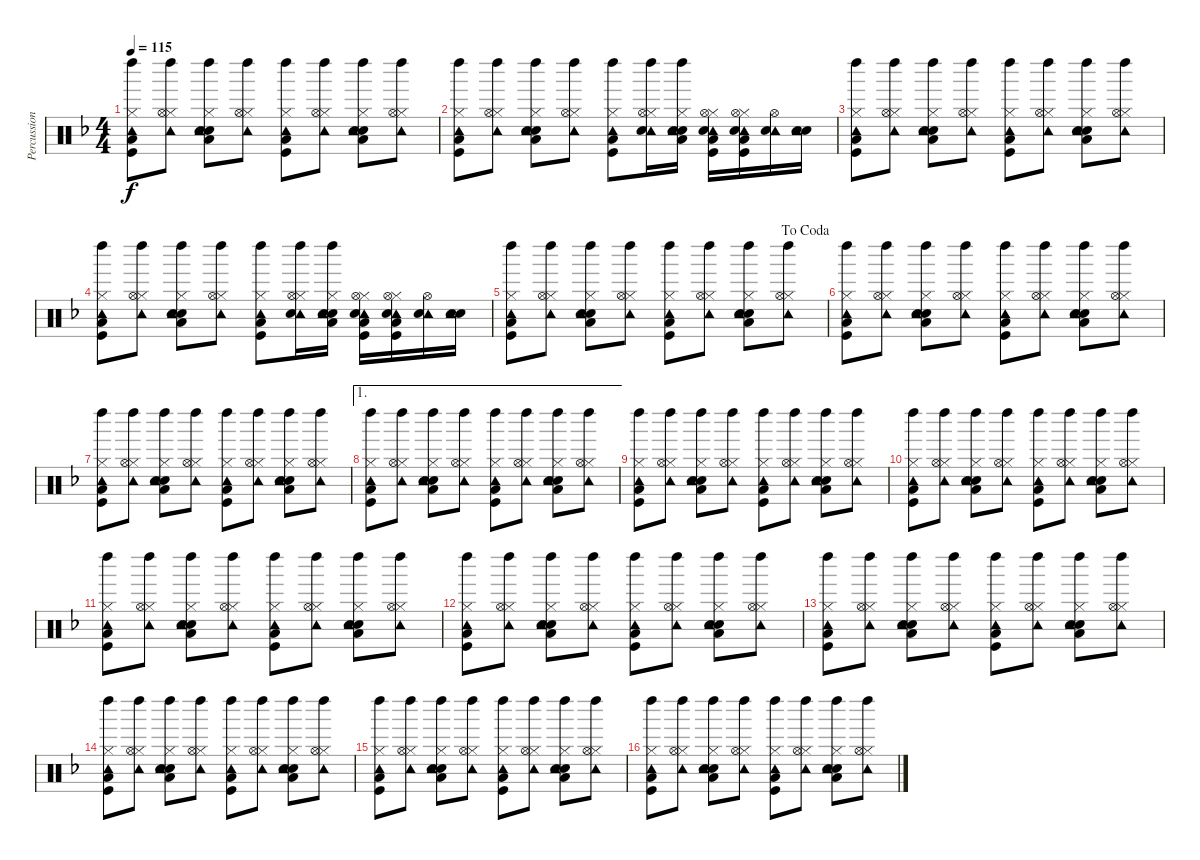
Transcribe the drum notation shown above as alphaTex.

\track ("Percussion" "Percussion") {instrument percussion}
\staff {score}
\articulation defaults
\ts (4 4)
\tempo 115
\clef neutral
\ks dminor
("Left Maraca (hit)" "Hi-Hat (closed)" "Tambourine (hit)" "Kick (hit)" "Low Floor Tom (hit)").8{dy f} ("Left Maraca (hit)" "Hi-Hat (closed)" "Hi-Hat (open)" "Tambourine (hit)").8 ("Left Maraca (hit)" "Hi-Hat (closed)" "Electric Snare (hit)" "Tambourine (hit)" "Snare (hit) 2" "Low Tom (hit)").8 ("Left Maraca (hit)" "Hi-Hat (closed)" "Hi-Hat (open)" "Tambourine (hit)").8 ("Left Maraca (hit)" "Hi-Hat (closed)" "Tambourine (hit)" "Kick (hit)" "Low Floor Tom (hit)").8 ("Left Maraca (hit)" "Hi-Hat (closed)" "Hi-Hat (open)" "Tambourine (hit)").8 ("Left Maraca (hit)" "Hi-Hat (closed)" "Electric Snare (hit)" "Tambourine (hit)" "Snare (hit) 2" "Low Tom (hit)").8 ("Left Maraca (hit)" "Hi-Hat (closed)" "Hi-Hat (open)" "Tambourine (hit)").8 |
("Left Maraca (hit)" "Hi-Hat (closed)" "Tambourine (hit)" "Kick (hit)" "Low Floor Tom (hit)").8 ("Left Maraca (hit)" "Hi-Hat (closed)" "Hi-Hat (open)" "Tambourine (hit)").8 ("Left Maraca (hit)" "Hi-Hat (closed)" "Electric Snare (hit)" "Tambourine (hit)" "Snare (hit) 2" "Low Tom (hit)").8 ("Left Maraca (hit)" "Hi-Hat (closed)" "Hi-Hat (open)" "Tambourine (hit)").8 ("Left Maraca (hit)" "Hi-Hat (closed)" "Tambourine (hit)" "Kick (hit)" "Low Floor Tom (hit)").8 ("Left Maraca (hit)" "Hi-Hat (closed)" "Hi-Hat (open)" "Tambourine (hit)" "Snare (hit) 2").16 ("Left Maraca (hit)" "Hi-Hat (closed)" "Electric Snare (hit)" "Tambourine (hit)" "Snare (hit) 2" "Low Tom (hit)").16 ("Kick (hit)" "Hi-Hat (closed)" "Hi-Hat (open)" "Tambourine (hit)" "Electric Snare (hit)" "Low Floor Tom (hit)").16 ("Kick (hit)" "Hi-Hat (closed)" "Hi-Hat (open)" "Tambourine (hit)" "Electric Snare (hit)" "Low Floor Tom (hit)").16 ("Hi-Hat (open)" "Tambourine (hit)" "Snare (hit) 2").16 ("Electric Snare (hit)" "Tambourine (hit)" "Snare (hit) 2").16 |
("Left Maraca (hit)" "Hi-Hat (closed)" "Tambourine (hit)" "Kick (hit)" "Low Floor Tom (hit)").8 ("Left Maraca (hit)" "Hi-Hat (closed)" "Hi-Hat (open)" "Tambourine (hit)").8 ("Left Maraca (hit)" "Hi-Hat (closed)" "Electric Snare (hit)" "Tambourine (hit)" "Snare (hit) 2" "Low Tom (hit)").8 ("Left Maraca (hit)" "Hi-Hat (closed)" "Hi-Hat (open)" "Tambourine (hit)").8 ("Left Maraca (hit)" "Hi-Hat (closed)" "Tambourine (hit)" "Kick (hit)" "Low Floor Tom (hit)").8 ("Left Maraca (hit)" "Hi-Hat (closed)" "Hi-Hat (open)" "Tambourine (hit)").8 ("Left Maraca (hit)" "Hi-Hat (closed)" "Electric Snare (hit)" "Tambourine (hit)" "Snare (hit) 2" "Low Tom (hit)").8 ("Left Maraca (hit)" "Hi-Hat (closed)" "Hi-Hat (open)" "Tambourine (hit)").8 |
("Left Maraca (hit)" "Hi-Hat (closed)" "Tambourine (hit)" "Kick (hit)" "Low Floor Tom (hit)").8 ("Left Maraca (hit)" "Hi-Hat (closed)" "Hi-Hat (open)" "Tambourine (hit)").8 ("Left Maraca (hit)" "Hi-Hat (closed)" "Electric Snare (hit)" "Tambourine (hit)" "Snare (hit) 2" "Low Tom (hit)").8 ("Left Maraca (hit)" "Hi-Hat (closed)" "Hi-Hat (open)" "Tambourine (hit)").8 ("Left Maraca (hit)" "Hi-Hat (closed)" "Tambourine (hit)" "Kick (hit)" "Low Floor Tom (hit)").8 ("Left Maraca (hit)" "Hi-Hat (closed)" "Hi-Hat (open)" "Tambourine (hit)" "Snare (hit) 2").16 ("Left Maraca (hit)" "Hi-Hat (closed)" "Electric Snare (hit)" "Tambourine (hit)" "Snare (hit) 2" "Low Tom (hit)").16 ("Kick (hit)" "Hi-Hat (closed)" "Hi-Hat (open)" "Tambourine (hit)" "Electric Snare (hit)" "Low Floor Tom (hit)").16 ("Kick (hit)" "Hi-Hat (closed)" "Hi-Hat (open)" "Tambourine (hit)" "Electric Snare (hit)" "Low Floor Tom (hit)").16 ("Hi-Hat (open)" "Tambourine (hit)" "Snare (hit) 2").16 ("Electric Snare (hit)" "Tambourine (hit)" "Snare (hit) 2").16 |
\jump dacoda
("Left Maraca (hit)" "Hi-Hat (closed)" "Tambourine (hit)" "Kick (hit)" "Low Floor Tom (hit)").8 ("Left Maraca (hit)" "Hi-Hat (closed)" "Hi-Hat (open)" "Tambourine (hit)").8 ("Left Maraca (hit)" "Hi-Hat (closed)" "Electric Snare (hit)" "Tambourine (hit)" "Snare (hit) 2" "Low Tom (hit)").8 ("Left Maraca (hit)" "Hi-Hat (closed)" "Hi-Hat (open)" "Tambourine (hit)").8 ("Left Maraca (hit)" "Hi-Hat (closed)" "Tambourine (hit)" "Kick (hit)" "Low Floor Tom (hit)").8 ("Left Maraca (hit)" "Hi-Hat (closed)" "Hi-Hat (open)" "Tambourine (hit)").8 ("Left Maraca (hit)" "Hi-Hat (closed)" "Electric Snare (hit)" "Tambourine (hit)" "Snare (hit) 2" "Low Tom (hit)").8 ("Left Maraca (hit)" "Hi-Hat (closed)" "Hi-Hat (open)" "Tambourine (hit)").8 |
("Left Maraca (hit)" "Hi-Hat (closed)" "Tambourine (hit)" "Kick (hit)" "Low Floor Tom (hit)").8 ("Left Maraca (hit)" "Hi-Hat (closed)" "Hi-Hat (open)" "Tambourine (hit)").8 ("Left Maraca (hit)" "Hi-Hat (closed)" "Electric Snare (hit)" "Tambourine (hit)" "Snare (hit) 2" "Low Tom (hit)").8 ("Left Maraca (hit)" "Hi-Hat (closed)" "Hi-Hat (open)" "Tambourine (hit)").8 ("Left Maraca (hit)" "Hi-Hat (closed)" "Tambourine (hit)" "Kick (hit)" "Low Floor Tom (hit)").8 ("Left Maraca (hit)" "Hi-Hat (closed)" "Hi-Hat (open)" "Tambourine (hit)").8 ("Left Maraca (hit)" "Hi-Hat (closed)" "Electric Snare (hit)" "Tambourine (hit)" "Snare (hit) 2" "Low Tom (hit)").8 ("Left Maraca (hit)" "Hi-Hat (closed)" "Hi-Hat (open)" "Tambourine (hit)").8 |
("Left Maraca (hit)" "Hi-Hat (closed)" "Tambourine (hit)" "Kick (hit)" "Low Floor Tom (hit)").8 ("Left Maraca (hit)" "Hi-Hat (closed)" "Hi-Hat (open)" "Tambourine (hit)").8 ("Left Maraca (hit)" "Hi-Hat (closed)" "Electric Snare (hit)" "Tambourine (hit)" "Snare (hit) 2" "Low Tom (hit)").8 ("Left Maraca (hit)" "Hi-Hat (closed)" "Hi-Hat (open)" "Tambourine (hit)").8 ("Left Maraca (hit)" "Hi-Hat (closed)" "Tambourine (hit)" "Kick (hit)" "Low Floor Tom (hit)").8 ("Left Maraca (hit)" "Hi-Hat (closed)" "Hi-Hat (open)" "Tambourine (hit)").8 ("Left Maraca (hit)" "Hi-Hat (closed)" "Electric Snare (hit)" "Tambourine (hit)" "Snare (hit) 2" "Low Tom (hit)").8 ("Left Maraca (hit)" "Hi-Hat (closed)" "Hi-Hat (open)" "Tambourine (hit)").8 |
\ae 1
("Left Maraca (hit)" "Hi-Hat (closed)" "Tambourine (hit)" "Kick (hit)" "Low Floor Tom (hit)").8 ("Left Maraca (hit)" "Hi-Hat (closed)" "Hi-Hat (open)" "Tambourine (hit)").8 ("Left Maraca (hit)" "Hi-Hat (closed)" "Electric Snare (hit)" "Tambourine (hit)" "Snare (hit) 2" "Low Tom (hit)").8 ("Left Maraca (hit)" "Hi-Hat (closed)" "Hi-Hat (open)" "Tambourine (hit)").8 ("Left Maraca (hit)" "Hi-Hat (closed)" "Tambourine (hit)" "Kick (hit)" "Low Floor Tom (hit)").8 ("Left Maraca (hit)" "Hi-Hat (closed)" "Hi-Hat (open)" "Tambourine (hit)").8 ("Left Maraca (hit)" "Hi-Hat (closed)" "Electric Snare (hit)" "Tambourine (hit)" "Snare (hit) 2" "Low Tom (hit)").8 ("Left Maraca (hit)" "Hi-Hat (closed)" "Hi-Hat (open)" "Tambourine (hit)").8 |
("Left Maraca (hit)" "Hi-Hat (closed)" "Tambourine (hit)" "Kick (hit)" "Low Floor Tom (hit)").8 ("Left Maraca (hit)" "Hi-Hat (closed)" "Hi-Hat (open)" "Tambourine (hit)").8 ("Left Maraca (hit)" "Hi-Hat (closed)" "Electric Snare (hit)" "Tambourine (hit)" "Snare (hit) 2" "Low Tom (hit)").8 ("Left Maraca (hit)" "Hi-Hat (closed)" "Hi-Hat (open)" "Tambourine (hit)").8 ("Left Maraca (hit)" "Hi-Hat (closed)" "Tambourine (hit)" "Kick (hit)" "Low Floor Tom (hit)").8 ("Left Maraca (hit)" "Hi-Hat (closed)" "Hi-Hat (open)" "Tambourine (hit)").8 ("Left Maraca (hit)" "Hi-Hat (closed)" "Electric Snare (hit)" "Tambourine (hit)" "Snare (hit) 2" "Low Tom (hit)").8 ("Left Maraca (hit)" "Hi-Hat (closed)" "Hi-Hat (open)" "Tambourine (hit)").8 |
("Left Maraca (hit)" "Hi-Hat (closed)" "Tambourine (hit)" "Kick (hit)" "Low Floor Tom (hit)").8 ("Left Maraca (hit)" "Hi-Hat (closed)" "Hi-Hat (open)" "Tambourine (hit)").8 ("Left Maraca (hit)" "Hi-Hat (closed)" "Electric Snare (hit)" "Tambourine (hit)" "Snare (hit) 2" "Low Tom (hit)").8 ("Left Maraca (hit)" "Hi-Hat (closed)" "Hi-Hat (open)" "Tambourine (hit)").8 ("Left Maraca (hit)" "Hi-Hat (closed)" "Tambourine (hit)" "Kick (hit)" "Low Floor Tom (hit)").8 ("Left Maraca (hit)" "Hi-Hat (closed)" "Hi-Hat (open)" "Tambourine (hit)").8 ("Left Maraca (hit)" "Hi-Hat (closed)" "Electric Snare (hit)" "Tambourine (hit)" "Snare (hit) 2" "Low Tom (hit)").8 ("Left Maraca (hit)" "Hi-Hat (closed)" "Hi-Hat (open)" "Tambourine (hit)").8 |
("Left Maraca (hit)" "Hi-Hat (closed)" "Tambourine (hit)" "Kick (hit)" "Low Floor Tom (hit)").8 ("Left Maraca (hit)" "Hi-Hat (closed)" "Hi-Hat (open)" "Tambourine (hit)").8 ("Left Maraca (hit)" "Hi-Hat (closed)" "Electric Snare (hit)" "Tambourine (hit)" "Snare (hit) 2" "Low Tom (hit)").8 ("Left Maraca (hit)" "Hi-Hat (closed)" "Hi-Hat (open)" "Tambourine (hit)").8 ("Left Maraca (hit)" "Hi-Hat (closed)" "Tambourine (hit)" "Kick (hit)" "Low Floor Tom (hit)").8 ("Left Maraca (hit)" "Hi-Hat (closed)" "Hi-Hat (open)" "Tambourine (hit)").8 ("Left Maraca (hit)" "Hi-Hat (closed)" "Electric Snare (hit)" "Tambourine (hit)" "Snare (hit) 2" "Low Tom (hit)").8 ("Left Maraca (hit)" "Hi-Hat (closed)" "Hi-Hat (open)" "Tambourine (hit)").8 |
("Left Maraca (hit)" "Hi-Hat (closed)" "Tambourine (hit)" "Kick (hit)" "Low Floor Tom (hit)").8 ("Left Maraca (hit)" "Hi-Hat (closed)" "Hi-Hat (open)" "Tambourine (hit)").8 ("Left Maraca (hit)" "Hi-Hat (closed)" "Electric Snare (hit)" "Tambourine (hit)" "Snare (hit) 2" "Low Tom (hit)").8 ("Left Maraca (hit)" "Hi-Hat (closed)" "Hi-Hat (open)" "Tambourine (hit)").8 ("Left Maraca (hit)" "Hi-Hat (closed)" "Tambourine (hit)" "Kick (hit)" "Low Floor Tom (hit)").8 ("Left Maraca (hit)" "Hi-Hat (closed)" "Hi-Hat (open)" "Tambourine (hit)").8 ("Left Maraca (hit)" "Hi-Hat (closed)" "Electric Snare (hit)" "Tambourine (hit)" "Snare (hit) 2" "Low Tom (hit)").8 ("Left Maraca (hit)" "Hi-Hat (closed)" "Hi-Hat (open)" "Tambourine (hit)").8 |
("Left Maraca (hit)" "Hi-Hat (closed)" "Tambourine (hit)" "Kick (hit)" "Low Floor Tom (hit)").8 ("Left Maraca (hit)" "Hi-Hat (closed)" "Hi-Hat (open)" "Tambourine (hit)").8 ("Left Maraca (hit)" "Hi-Hat (closed)" "Electric Snare (hit)" "Tambourine (hit)" "Snare (hit) 2" "Low Tom (hit)").8 ("Left Maraca (hit)" "Hi-Hat (closed)" "Hi-Hat (open)" "Tambourine (hit)").8 ("Left Maraca (hit)" "Hi-Hat (closed)" "Tambourine (hit)" "Kick (hit)" "Low Floor Tom (hit)").8 ("Left Maraca (hit)" "Hi-Hat (closed)" "Hi-Hat (open)" "Tambourine (hit)").8 ("Left Maraca (hit)" "Hi-Hat (closed)" "Electric Snare (hit)" "Tambourine (hit)" "Snare (hit) 2" "Low Tom (hit)").8 ("Left Maraca (hit)" "Hi-Hat (closed)" "Hi-Hat (open)" "Tambourine (hit)").8 |
("Left Maraca (hit)" "Hi-Hat (closed)" "Tambourine (hit)" "Kick (hit)" "Low Floor Tom (hit)").8 ("Left Maraca (hit)" "Hi-Hat (closed)" "Hi-Hat (open)" "Tambourine (hit)").8 ("Left Maraca (hit)" "Hi-Hat (closed)" "Electric Snare (hit)" "Tambourine (hit)" "Snare (hit) 2" "Low Tom (hit)").8 ("Left Maraca (hit)" "Hi-Hat (closed)" "Hi-Hat (open)" "Tambourine (hit)").8 ("Left Maraca (hit)" "Hi-Hat (closed)" "Tambourine (hit)" "Kick (hit)" "Low Floor Tom (hit)").8 ("Left Maraca (hit)" "Hi-Hat (closed)" "Hi-Hat (open)" "Tambourine (hit)").8 ("Left Maraca (hit)" "Hi-Hat (closed)" "Electric Snare (hit)" "Tambourine (hit)" "Snare (hit) 2" "Low Tom (hit)").8 ("Left Maraca (hit)" "Hi-Hat (closed)" "Hi-Hat (open)" "Tambourine (hit)").8 |
("Left Maraca (hit)" "Hi-Hat (closed)" "Tambourine (hit)" "Kick (hit)" "Low Floor Tom (hit)").8 ("Left Maraca (hit)" "Hi-Hat (closed)" "Hi-Hat (open)" "Tambourine (hit)").8 ("Left Maraca (hit)" "Hi-Hat (closed)" "Electric Snare (hit)" "Tambourine (hit)" "Snare (hit) 2" "Low Tom (hit)").8 ("Left Maraca (hit)" "Hi-Hat (closed)" "Hi-Hat (open)" "Tambourine (hit)").8 ("Left Maraca (hit)" "Hi-Hat (closed)" "Tambourine (hit)" "Kick (hit)" "Low Floor Tom (hit)").8 ("Left Maraca (hit)" "Hi-Hat (closed)" "Hi-Hat (open)" "Tambourine (hit)").8 ("Left Maraca (hit)" "Hi-Hat (closed)" "Electric Snare (hit)" "Tambourine (hit)" "Snare (hit) 2" "Low Tom (hit)").8 ("Left Maraca (hit)" "Hi-Hat (closed)" "Hi-Hat (open)" "Tambourine (hit)").8 |
("Left Maraca (hit)" "Hi-Hat (closed)" "Tambourine (hit)" "Kick (hit)" "Low Floor Tom (hit)").8 ("Left Maraca (hit)" "Hi-Hat (closed)" "Hi-Hat (open)" "Tambourine (hit)").8 ("Left Maraca (hit)" "Hi-Hat (closed)" "Electric Snare (hit)" "Tambourine (hit)" "Snare (hit) 2" "Low Tom (hit)").8 ("Left Maraca (hit)" "Hi-Hat (closed)" "Hi-Hat (open)" "Tambourine (hit)").8 ("Left Maraca (hit)" "Hi-Hat (closed)" "Tambourine (hit)" "Kick (hit)" "Low Floor Tom (hit)").8 ("Left Maraca (hit)" "Hi-Hat (closed)" "Hi-Hat (open)" "Tambourine (hit)").8 ("Left Maraca (hit)" "Hi-Hat (closed)" "Electric Snare (hit)" "Tambourine (hit)" "Snare (hit) 2" "Low Tom (hit)").8 ("Left Maraca (hit)" "Hi-Hat (closed)" "Hi-Hat (open)" "Tambourine (hit)").8
